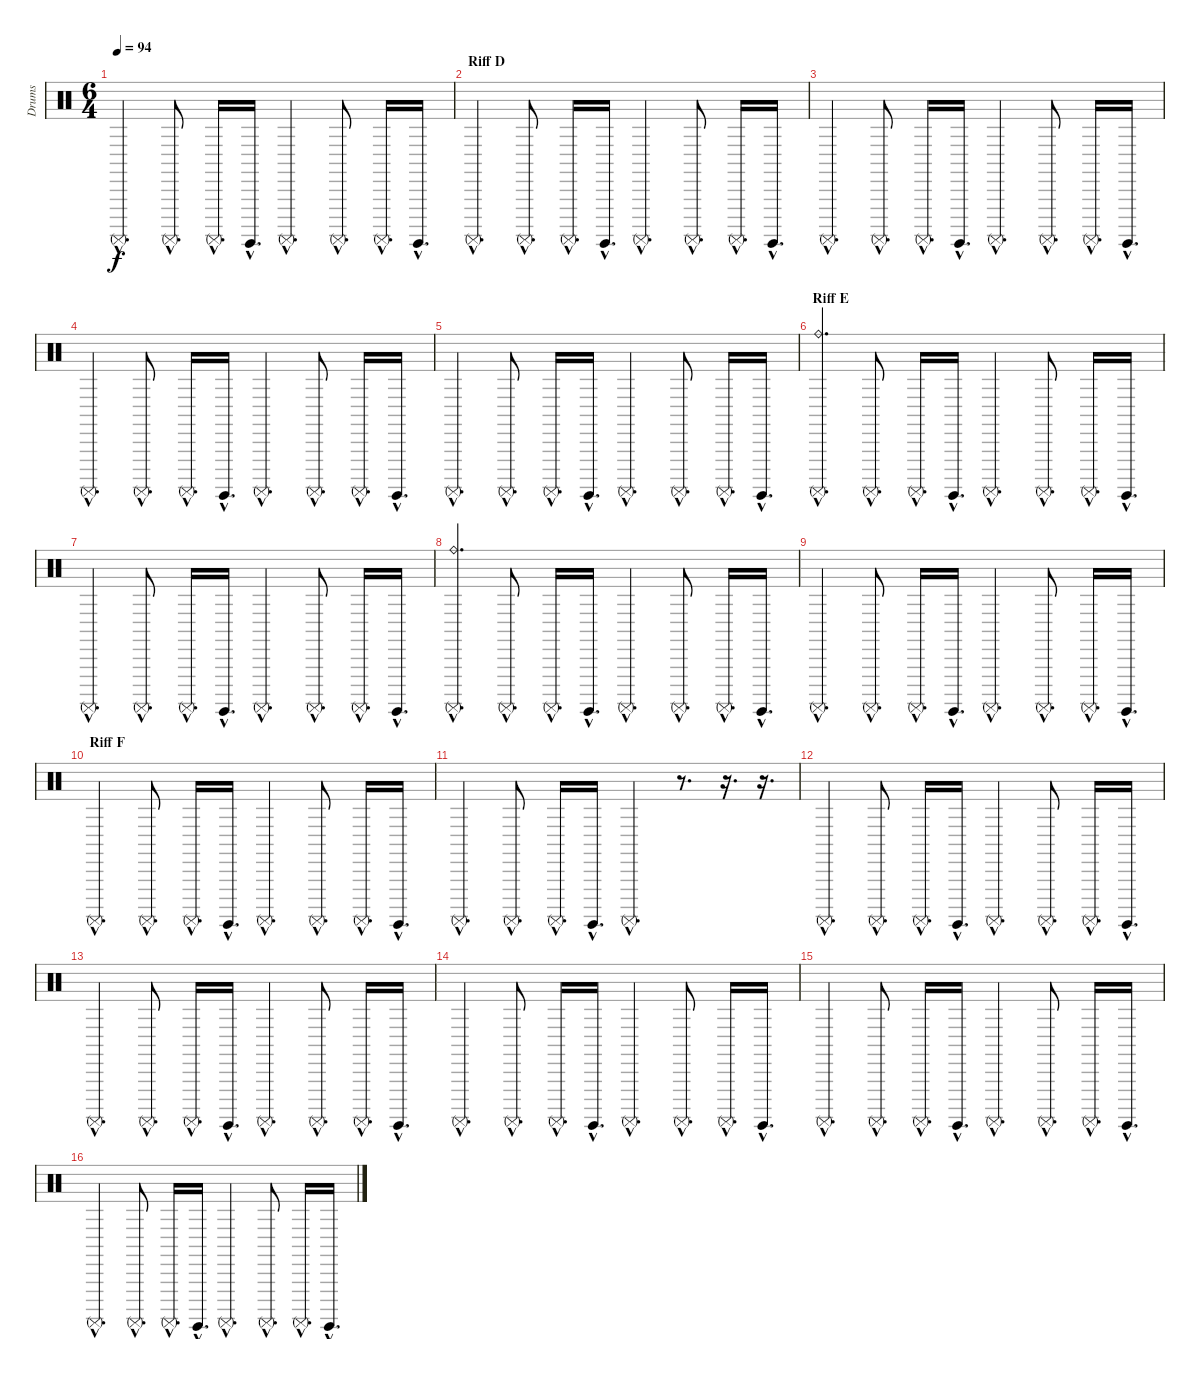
\track ("Drums" "Drums") {instrument percussion}
\staff {score}
\articulation defaults
\ts (6 4)
\tempo 94
\clef neutral
\ks c "Surdo (mute)"{hac}.4{d dy f} "Surdo (mute)"{hac}.8{d} "Surdo (mute)"{hac}.16{d} "Surdo (hit)"{hac}.16{d} "Surdo (mute)"{hac}.4{d} "Surdo (mute)"{hac}.8{d} "Surdo (mute)"{hac}.16{d} "Surdo (hit)"{hac}.16{d}
|
\section ("" "Riff D")
"Surdo (mute)"{hac}.4{d} "Surdo (mute)"{hac}.8{d} "Surdo (mute)"{hac}.16{d} "Surdo (hit)"{hac}.16{d} "Surdo (mute)"{hac}.4{d} "Surdo (mute)"{hac}.8{d} "Surdo (mute)"{hac}.16{d} "Surdo (hit)"{hac}.16{d} |
"Surdo (mute)"{hac}.4{d} "Surdo (mute)"{hac}.8{d} "Surdo (mute)"{hac}.16{d} "Surdo (hit)"{hac}.16{d} "Surdo (mute)"{hac}.4{d} "Surdo (mute)"{hac}.8{d} "Surdo (mute)"{hac}.16{d} "Surdo (hit)"{hac}.16{d} |
"Surdo (mute)"{hac}.4{d} "Surdo (mute)"{hac}.8{d} "Surdo (mute)"{hac}.16{d} "Surdo (hit)"{hac}.16{d} "Surdo (mute)"{hac}.4{d} "Surdo (mute)"{hac}.8{d} "Surdo (mute)"{hac}.16{d} "Surdo (hit)"{hac}.16{d} |
"Surdo (mute)"{hac}.4{d} "Surdo (mute)"{hac}.8{d} "Surdo (mute)"{hac}.16{d} "Surdo (hit)"{hac}.16{d} "Surdo (mute)"{hac}.4{d} "Surdo (mute)"{hac}.8{d} "Surdo (mute)"{hac}.16{d} "Surdo (hit)"{hac}.16{d} |
\section ("" "Riff E")
("Surdo (mute)"{hac} "Ride (bell)"{hac}).4{d} "Surdo (mute)"{hac}.8{d} "Surdo (mute)"{hac}.16{d} "Surdo (hit)"{hac}.16{d} "Surdo (mute)"{hac}.4{d} "Surdo (mute)"{hac}.8{d} "Surdo (mute)"{hac}.16{d} "Surdo (hit)"{hac}.16{d} |
"Surdo (mute)"{hac}.4{d} "Surdo (mute)"{hac}.8{d} "Surdo (mute)"{hac}.16{d} "Surdo (hit)"{hac}.16{d} "Surdo (mute)"{hac}.4{d} "Surdo (mute)"{hac}.8{d} "Surdo (mute)"{hac}.16{d} "Surdo (hit)"{hac}.16{d} |
("Surdo (mute)"{hac} "Ride (bell)"{hac}).4{d} "Surdo (mute)"{hac}.8{d} "Surdo (mute)"{hac}.16{d} "Surdo (hit)"{hac}.16{d} "Surdo (mute)"{hac}.4{d} "Surdo (mute)"{hac}.8{d} "Surdo (mute)"{hac}.16{d} "Surdo (hit)"{hac}.16{d} |
"Surdo (mute)"{hac}.4{d} "Surdo (mute)"{hac}.8{d} "Surdo (mute)"{hac}.16{d} "Surdo (hit)"{hac}.16{d} "Surdo (mute)"{hac}.4{d} "Surdo (mute)"{hac}.8{d} "Surdo (mute)"{hac}.16{d} "Surdo (hit)"{hac}.16{d} |
\section ("" "Riff F")
"Surdo (mute)"{hac}.4{d} "Surdo (mute)"{hac}.8{d} "Surdo (mute)"{hac}.16{d} "Surdo (hit)"{hac}.16{d} "Surdo (mute)"{hac}.4{d} "Surdo (mute)"{hac}.8{d} "Surdo (mute)"{hac}.16{d} "Surdo (hit)"{hac}.16{d} |
"Surdo (mute)"{hac}.4{d} "Surdo (mute)"{hac}.8{d} "Surdo (mute)"{hac}.16{d} "Surdo (hit)"{hac}.16{d} "Surdo (mute)"{hac}.4{d} r.8{d} r.16{d} r.16{d} |
"Surdo (mute)"{hac}.4{d} "Surdo (mute)"{hac}.8{d} "Surdo (mute)"{hac}.16{d} "Surdo (hit)"{hac}.16{d} "Surdo (mute)"{hac}.4{d} "Surdo (mute)"{hac}.8{d} "Surdo (mute)"{hac}.16{d} "Surdo (hit)"{hac}.16{d} |
"Surdo (mute)"{hac}.4{d} "Surdo (mute)"{hac}.8{d} "Surdo (mute)"{hac}.16{d} "Surdo (hit)"{hac}.16{d} "Surdo (mute)"{hac}.4{d} "Surdo (mute)"{hac}.8{d} "Surdo (mute)"{hac}.16{d} "Surdo (hit)"{hac}.16{d} |
"Surdo (mute)"{hac}.4{d} "Surdo (mute)"{hac}.8{d} "Surdo (mute)"{hac}.16{d} "Surdo (hit)"{hac}.16{d} "Surdo (mute)"{hac}.4{d} "Surdo (mute)"{hac}.8{d} "Surdo (mute)"{hac}.16{d} "Surdo (hit)"{hac}.16{d} |
"Surdo (mute)"{hac}.4{d} "Surdo (mute)"{hac}.8{d} "Surdo (mute)"{hac}.16{d} "Surdo (hit)"{hac}.16{d} "Surdo (mute)"{hac}.4{d} "Surdo (mute)"{hac}.8{d} "Surdo (mute)"{hac}.16{d} "Surdo (hit)"{hac}.16{d} |
"Surdo (mute)"{hac}.4{d} "Surdo (mute)"{hac}.8{d} "Surdo (mute)"{hac}.16{d} "Surdo (hit)"{hac}.16{d} "Surdo (mute)"{hac}.4{d} "Surdo (mute)"{hac}.8{d} "Surdo (mute)"{hac}.16{d} "Surdo (hit)"{hac}.16{d}
